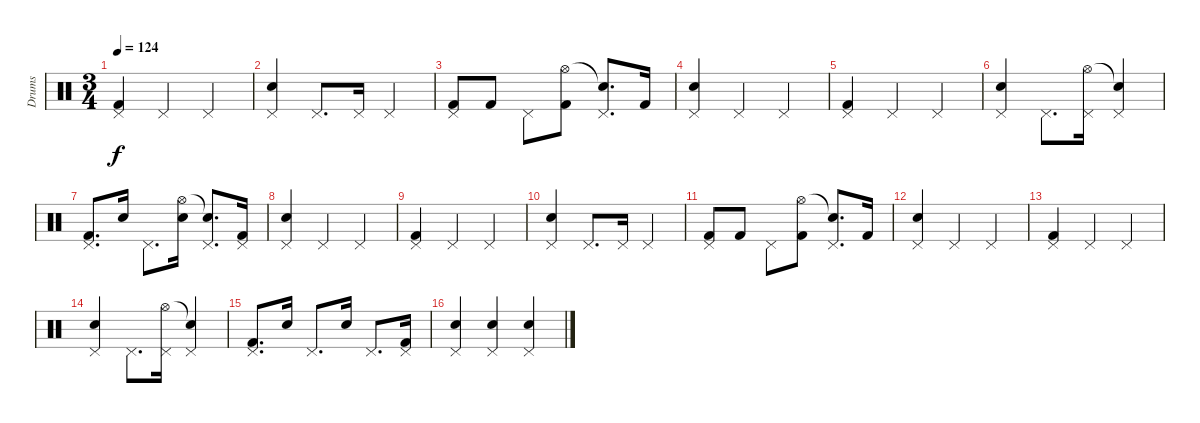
\track ("Drums" "Drums") {instrument percussion}
\staff {score}
\articulation defaults
\ts (3 4)
\tempo 124
\clef neutral
\ks c
("Kick (hit) 2" "Pedal Hi-Hat (hit)").4{dy f} "Pedal Hi-Hat (hit)".4 "Pedal Hi-Hat (hit)".4 |
("Electric Snare (hit)" "Pedal Hi-Hat (hit)").4 "Pedal Hi-Hat (hit)".8{d} "Pedal Hi-Hat (hit)".16 "Pedal Hi-Hat (hit)".4 |
("Kick (hit) 2" "Pedal Hi-Hat (hit)").8 "Kick (hit) 2".8 "Pedal Hi-Hat (hit)".8 ("Kick (hit) 2" "Hi-Hat (open)").8 ("Pedal Hi-Hat (hit)" "Snare (hit)"{t}).8{d} "Kick (hit) 2".16 |
("Electric Snare (hit)" "Pedal Hi-Hat (hit)").4 "Pedal Hi-Hat (hit)".4 "Pedal Hi-Hat (hit)".4 |
("Kick (hit) 2" "Pedal Hi-Hat (hit)").4 "Pedal Hi-Hat (hit)".4 "Pedal Hi-Hat (hit)".4 |
("Electric Snare (hit)" "Pedal Hi-Hat (hit)").4 "Pedal Hi-Hat (hit)".8{d} ("Pedal Hi-Hat (hit)" "Hi-Hat (open)").16 ("Pedal Hi-Hat (hit)" "Snare (hit)"{t}).4 |
("Kick (hit) 2" "Pedal Hi-Hat (hit)").8{d} "Electric Snare (hit)".16 "Pedal Hi-Hat (hit)".8{d} ("Snare (hit) 2" "Hi-Hat (open)").16 ("Pedal Hi-Hat (hit)" "Snare (hit)"{t}).8{d} ("Kick (hit) 2" "Pedal Hi-Hat (hit)").16 |
("Electric Snare (hit)" "Pedal Hi-Hat (hit)").4 "Pedal Hi-Hat (hit)".4 "Pedal Hi-Hat (hit)".4 |
("Kick (hit) 2" "Pedal Hi-Hat (hit)").4 "Pedal Hi-Hat (hit)".4 "Pedal Hi-Hat (hit)".4 |
("Electric Snare (hit)" "Pedal Hi-Hat (hit)").4 "Pedal Hi-Hat (hit)".8{d} "Pedal Hi-Hat (hit)".16 "Pedal Hi-Hat (hit)".4 |
("Kick (hit) 2" "Pedal Hi-Hat (hit)").8 "Kick (hit) 2".8 "Pedal Hi-Hat (hit)".8 ("Kick (hit) 2" "Hi-Hat (open)").8 ("Pedal Hi-Hat (hit)" "Snare (hit)"{t}).8{d} "Kick (hit) 2".16 |
("Electric Snare (hit)" "Pedal Hi-Hat (hit)").4 "Pedal Hi-Hat (hit)".4 "Pedal Hi-Hat (hit)".4 |
("Kick (hit) 2" "Pedal Hi-Hat (hit)").4 "Pedal Hi-Hat (hit)".4 "Pedal Hi-Hat (hit)".4 |
("Electric Snare (hit)" "Pedal Hi-Hat (hit)").4 "Pedal Hi-Hat (hit)".8{d} ("Pedal Hi-Hat (hit)" "Hi-Hat (open)").16 ("Pedal Hi-Hat (hit)" "Snare (hit)"{t}).4 |
("Kick (hit) 2" "Pedal Hi-Hat (hit)").8{d} "Electric Snare (hit)".16 "Pedal Hi-Hat (hit)".8{d} "Snare (hit) 2".16 "Pedal Hi-Hat (hit)".8{d} ("Kick (hit) 2" "Pedal Hi-Hat (hit)").16 |
("Electric Snare (hit)" "Pedal Hi-Hat (hit)").4 ("Electric Snare (hit)" "Pedal Hi-Hat (hit)").4 ("Electric Snare (hit)" "Pedal Hi-Hat (hit)").4
